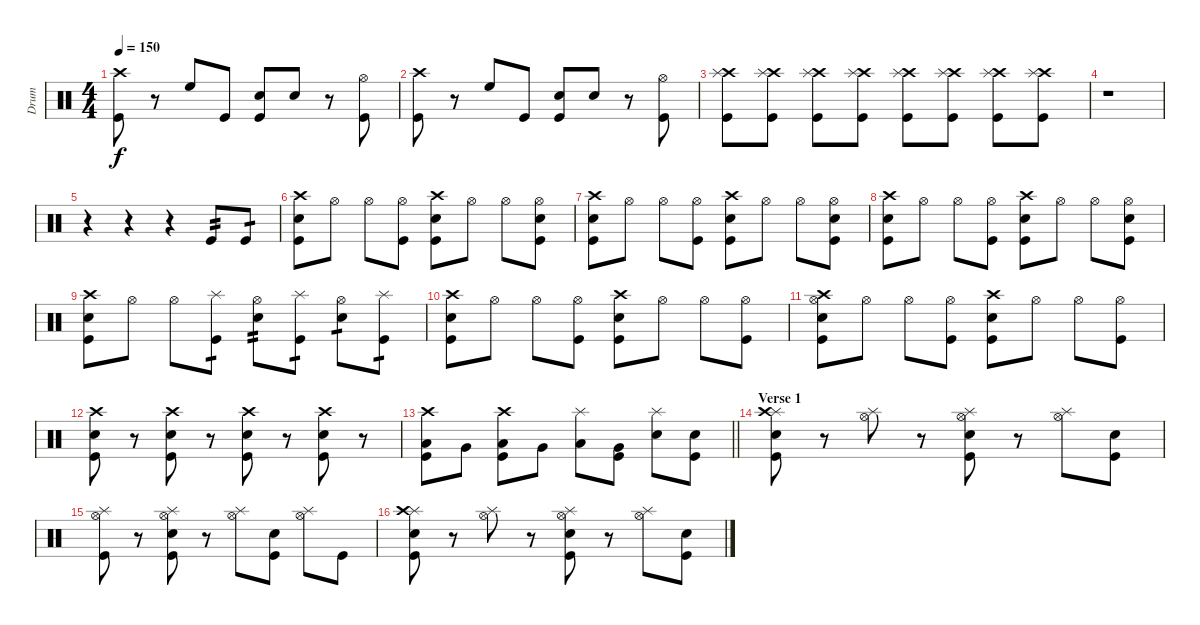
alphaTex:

\track ("Drum" "Drum") {instrument percussion}
\staff {score}
\articulation defaults
\ts (4 4)
\tempo 150
\clef neutral
\ks c
("Crash high (hit)" "Kick (hit)").8{dy f} r.8 "High Floor Tom (hit)".8 "Kick (hit)".8 ("Snare (hit) 2" "Kick (hit)").8 "Snare (hit) 2".8 r.8 ("Hi-Hat (open)" "Kick (hit)").8 |
("Crash high (hit)" "Kick (hit)").8 r.8 "High Floor Tom (hit)".8 "Kick (hit)".8 ("Snare (hit) 2" "Kick (hit)").8 "Snare (hit) 2".8 r.8 ("Hi-Hat (open)" "Kick (hit)").8 |
("Crash high (hit)" "Splash (hit)" "Kick (hit)").8 ("Crash high (hit)" "Splash (hit)" "Kick (hit)").8 ("Crash high (hit)" "Splash (hit)" "Kick (hit)").8 ("Crash high (hit)" "Splash (hit)" "Kick (hit)").8 ("Crash high (hit)" "Splash (hit)" "Kick (hit)").8 ("Crash high (hit)" "Splash (hit)" "Kick (hit)").8 ("Crash high (hit)" "Splash (hit)" "Kick (hit)").8 ("Crash high (hit)" "Splash (hit)" "Kick (hit)").8 |
r.1 |
r.4 r.4 r.4 "Kick (hit)".8{tp 2} "Kick (hit)".8{tp 1} |
("Crash high (hit)" "Snare (hit) 2" "Kick (hit)").8 "Hi-Hat (open)".8 "Hi-Hat (open)".8 ("Hi-Hat (open)" "Kick (hit)").8 ("Crash high (hit)" "Snare (hit) 2" "Kick (hit)").8 "Hi-Hat (open)".8 "Hi-Hat (open)".8 ("Hi-Hat (open)" "Snare (hit) 2" "Kick (hit)").8 |
("Crash high (hit)" "Snare (hit) 2" "Kick (hit)").8 "Hi-Hat (open)".8 "Hi-Hat (open)".8 ("Hi-Hat (open)" "Kick (hit)").8 ("Crash high (hit)" "Snare (hit) 2" "Kick (hit)").8 "Hi-Hat (open)".8 "Hi-Hat (open)".8 ("Hi-Hat (open)" "Snare (hit) 2" "Kick (hit)").8 |
("Crash high (hit)" "Snare (hit) 2" "Kick (hit)").8 "Hi-Hat (open)".8 "Hi-Hat (open)".8 ("Hi-Hat (open)" "Kick (hit)").8 ("Crash high (hit)" "Snare (hit) 2" "Kick (hit)").8 "Hi-Hat (open)".8 "Hi-Hat (open)".8 ("Hi-Hat (open)" "Snare (hit) 2" "Kick (hit)").8 |
("Crash high (hit)" "Snare (hit) 2" "Kick (hit)").8 "Hi-Hat (open)".8 "Hi-Hat (open)".8 ("Splash (hit)" "Kick (hit)").8{tp 1} ("Hi-Hat (open)" "Snare (hit) 2").8{tp 2} ("Splash (hit)" "Kick (hit)").8{tp 1} ("Hi-Hat (open)" "Snare (hit) 2").8{tp 1} ("Splash (hit)" "Kick (hit)").8{tp 1} |
("Crash high (hit)" "Snare (hit) 2" "Kick (hit)").8 "Hi-Hat (open)".8 "Hi-Hat (open)".8 ("Hi-Hat (open)" "Kick (hit)").8 ("Crash high (hit)" "Snare (hit) 2" "Kick (hit)").8 "Hi-Hat (open)".8 "Hi-Hat (open)".8 ("Hi-Hat (open)" "Kick (hit)").8 |
("Crash high (hit)" "Hi-Hat (open)" "Snare (hit) 2" "Kick (hit)").8 "Hi-Hat (open)".8 "Hi-Hat (open)".8 ("Hi-Hat (open)" "Kick (hit)").8 ("Crash high (hit)" "Snare (hit) 2" "Kick (hit)").8 "Hi-Hat (open)".8 "Hi-Hat (open)".8 ("Hi-Hat (open)" "Kick (hit)").8 |
("Crash high (hit)" "Snare (hit) 2" "Kick (hit)").8 r.8 ("Crash high (hit)" "Snare (hit) 2" "Kick (hit)").8 r.8 ("Crash high (hit)" "Snare (hit) 2" "Kick (hit)").8 r.8 ("Crash high (hit)" "Snare (hit) 2" "Kick (hit)").8 r.8 |
\barLineRight lightlight
("Crash high (hit)" "Low Floor Tom (hit)" "Kick (hit)").8 "Very Low Tom (hit)".8 ("Crash high (hit)" "Low Floor Tom (hit)" "Kick (hit)").8 "Very Low Tom (hit)".8 ("Splash (hit)" "Low Floor Tom (hit)").8 ("Very Low Tom (hit)" "Kick (hit)").8 ("Splash (hit)" "Snare (hit) 2").8 ("Snare (hit) 2" "Kick (hit)").8 |
\section ("" "Verse 1")
("Splash (hit)" "Crash high (hit)" "Snare (hit) 2" "Kick (hit)").8 r.8 ("Splash (hit)" "Hi-Hat (open)").8 r.8 ("Splash (hit)" "Hi-Hat (open)" "Snare (hit) 2" "Kick (hit)").8 r.8 ("Splash (hit)" "Hi-Hat (open)").8 ("Snare (hit) 2" "Kick (hit)").8 |
("Splash (hit)" "Hi-Hat (open)" "Kick (hit)").8 r.8 ("Splash (hit)" "Hi-Hat (open)" "Snare (hit) 2" "Kick (hit)").8 r.8 ("Splash (hit)" "Hi-Hat (open)").8 ("Snare (hit) 2" "Kick (hit)").8 ("Splash (hit)" "Hi-Hat (open)").8 "Kick (hit)".8 |
("Splash (hit)" "Crash high (hit)" "Snare (hit) 2" "Kick (hit)").8 r.8 ("Splash (hit)" "Hi-Hat (open)").8 r.8 ("Splash (hit)" "Hi-Hat (open)" "Snare (hit) 2" "Kick (hit)").8 r.8 ("Splash (hit)" "Hi-Hat (open)").8 ("Snare (hit) 2" "Kick (hit)").8
